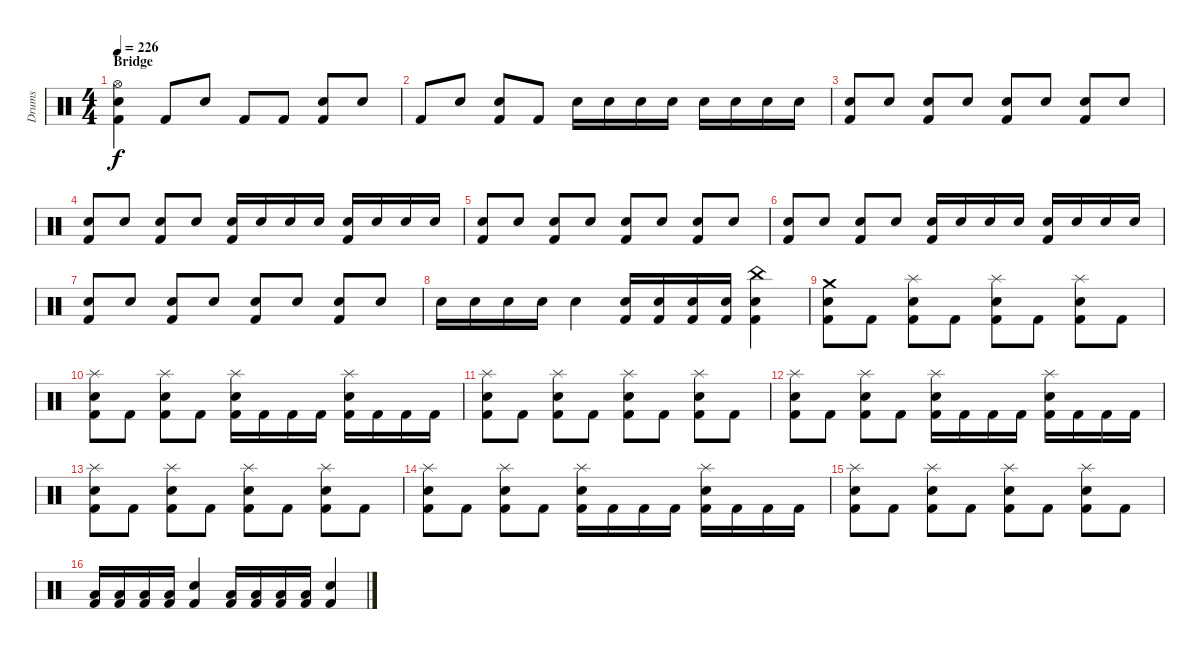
\track ("Drums" "Drums") {instrument percussion}
\staff {score}
\articulation defaults
\ts (4 4)
\section ("" "Bridge")
\tempo 226
\clef neutral
\ks c
("Hi-Hat (open)" "Snare (hit) 2" "Kick (hit) 2").4{dy f volume 11} "Kick (hit) 2".8 "Snare (hit) 2".8 "Kick (hit) 2".8 "Kick (hit) 2".8 ("Snare (hit) 2" "Kick (hit) 2").8 "Snare (hit) 2".8 |
"Kick (hit) 2".8 "Snare (hit) 2".8 ("Snare (hit) 2" "Kick (hit) 2").8 "Kick (hit) 2".8 "Snare (hit) 2".16 "Snare (hit) 2".16 "Snare (hit) 2".16 "Snare (hit) 2".16 "Snare (hit) 2".16 "Snare (hit) 2".16 "Snare (hit) 2".16 "Snare (hit) 2".16 |
("Snare (hit) 2" "Kick (hit) 2").8 "Snare (hit) 2".8 ("Snare (hit) 2" "Kick (hit) 2").8 "Snare (hit) 2".8 ("Snare (hit) 2" "Kick (hit) 2").8 "Snare (hit) 2".8 ("Snare (hit) 2" "Kick (hit) 2").8 "Snare (hit) 2".8 |
("Snare (hit) 2" "Kick (hit) 2").8 "Snare (hit) 2".8 ("Snare (hit) 2" "Kick (hit) 2").8 "Snare (hit) 2".8 ("Snare (hit) 2" "Kick (hit) 2").16 "Snare (hit) 2".16 "Snare (hit) 2".16 "Snare (hit) 2".16 ("Snare (hit) 2" "Kick (hit) 2").16 "Snare (hit) 2".16 "Snare (hit) 2".16 "Snare (hit) 2".16 |
("Snare (hit) 2" "Kick (hit) 2").8 "Snare (hit) 2".8 ("Snare (hit) 2" "Kick (hit) 2").8 "Snare (hit) 2".8 ("Snare (hit) 2" "Kick (hit) 2").8 "Snare (hit) 2".8 ("Snare (hit) 2" "Kick (hit) 2").8 "Snare (hit) 2".8 |
("Snare (hit) 2" "Kick (hit) 2").8 "Snare (hit) 2".8 ("Snare (hit) 2" "Kick (hit) 2").8 "Snare (hit) 2".8 ("Snare (hit) 2" "Kick (hit) 2").16 "Snare (hit) 2".16 "Snare (hit) 2".16 "Snare (hit) 2".16 ("Snare (hit) 2" "Kick (hit) 2").16 "Snare (hit) 2".16 "Snare (hit) 2".16 "Snare (hit) 2".16 |
("Snare (hit) 2" "Kick (hit) 2").8 "Snare (hit) 2".8 ("Snare (hit) 2" "Kick (hit) 2").8 "Snare (hit) 2".8 ("Snare (hit) 2" "Kick (hit) 2").8 "Snare (hit) 2".8 ("Snare (hit) 2" "Kick (hit) 2").8 "Snare (hit) 2".8 |
"Snare (hit) 2".16 "Snare (hit) 2".16 "Snare (hit) 2".16 "Snare (hit) 2".16 "Snare (hit) 2".4 ("Snare (hit) 2" "Kick (hit) 2").16 ("Snare (hit) 2" "Kick (hit) 2").16 ("Snare (hit) 2" "Kick (hit) 2").16 ("Snare (hit) 2" "Kick (hit) 2").16 ("China (hit)" "Snare (hit) 2" "Kick (hit) 2").4 |
("Crash medium (hit)" "Snare (hit) 2" "Kick (hit) 2").8{volume 16} "Kick (hit) 2".8 ("Splash (hit)" "Snare (hit) 2" "Kick (hit) 2").8 "Kick (hit) 2".8 ("Splash (hit)" "Snare (hit) 2" "Kick (hit) 2").8 "Kick (hit) 2".8 ("Splash (hit)" "Snare (hit) 2" "Kick (hit) 2").8 "Kick (hit) 2".8 |
("Splash (hit)" "Snare (hit) 2" "Kick (hit) 2").8 "Kick (hit) 2".8 ("Splash (hit)" "Snare (hit) 2" "Kick (hit) 2").8 "Kick (hit) 2".8 ("Splash (hit)" "Snare (hit) 2" "Kick (hit) 2").16 "Kick (hit) 2".16 "Kick (hit) 2".16 "Kick (hit) 2".16 ("Splash (hit)" "Snare (hit) 2" "Kick (hit) 2").16 "Kick (hit) 2".16 "Kick (hit) 2".16 "Kick (hit) 2".16 |
("Splash (hit)" "Snare (hit) 2" "Kick (hit) 2").8 "Kick (hit) 2".8 ("Splash (hit)" "Snare (hit) 2" "Kick (hit) 2").8 "Kick (hit) 2".8 ("Splash (hit)" "Snare (hit) 2" "Kick (hit) 2").8 "Kick (hit) 2".8 ("Splash (hit)" "Snare (hit) 2" "Kick (hit) 2").8 "Kick (hit) 2".8 |
("Splash (hit)" "Snare (hit) 2" "Kick (hit) 2").8 "Kick (hit) 2".8 ("Splash (hit)" "Snare (hit) 2" "Kick (hit) 2").8 "Kick (hit) 2".8 ("Splash (hit)" "Snare (hit) 2" "Kick (hit) 2").16 "Kick (hit) 2".16 "Kick (hit) 2".16 "Kick (hit) 2".16 ("Splash (hit)" "Snare (hit) 2" "Kick (hit) 2").16 "Kick (hit) 2".16 "Kick (hit) 2".16 "Kick (hit) 2".16 |
("Splash (hit)" "Snare (hit) 2" "Kick (hit) 2").8 "Kick (hit) 2".8 ("Splash (hit)" "Snare (hit) 2" "Kick (hit) 2").8 "Kick (hit) 2".8 ("Splash (hit)" "Snare (hit) 2" "Kick (hit) 2").8 "Kick (hit) 2".8 ("Splash (hit)" "Snare (hit) 2" "Kick (hit) 2").8 "Kick (hit) 2".8 |
("Splash (hit)" "Snare (hit) 2" "Kick (hit) 2").8 "Kick (hit) 2".8 ("Splash (hit)" "Snare (hit) 2" "Kick (hit) 2").8 "Kick (hit) 2".8 ("Splash (hit)" "Snare (hit) 2" "Kick (hit) 2").16 "Kick (hit) 2".16 "Kick (hit) 2".16 "Kick (hit) 2".16 ("Splash (hit)" "Snare (hit) 2" "Kick (hit) 2").16 "Kick (hit) 2".16 "Kick (hit) 2".16 "Kick (hit) 2".16 |
("Splash (hit)" "Snare (hit) 2" "Kick (hit) 2").8 "Kick (hit) 2".8 ("Splash (hit)" "Snare (hit) 2" "Kick (hit) 2").8 "Kick (hit) 2".8 ("Splash (hit)" "Snare (hit) 2" "Kick (hit) 2").8 "Kick (hit) 2".8 ("Splash (hit)" "Snare (hit) 2" "Kick (hit) 2").8 "Kick (hit) 2".8 |
("Low Tom (hit)" "Kick (hit) 2").16 ("Low Tom (hit)" "Kick (hit) 2").16 ("Low Tom (hit)" "Kick (hit) 2").16 ("Low Tom (hit)" "Kick (hit) 2").16 ("Snare (hit) 2" "Kick (hit) 2").4 ("Low Tom (hit)" "Kick (hit) 2").16 ("Low Tom (hit)" "Kick (hit) 2").16 ("Low Tom (hit)" "Kick (hit) 2").16 ("Low Tom (hit)" "Kick (hit) 2").16 ("Snare (hit) 2" "Kick (hit) 2").4
